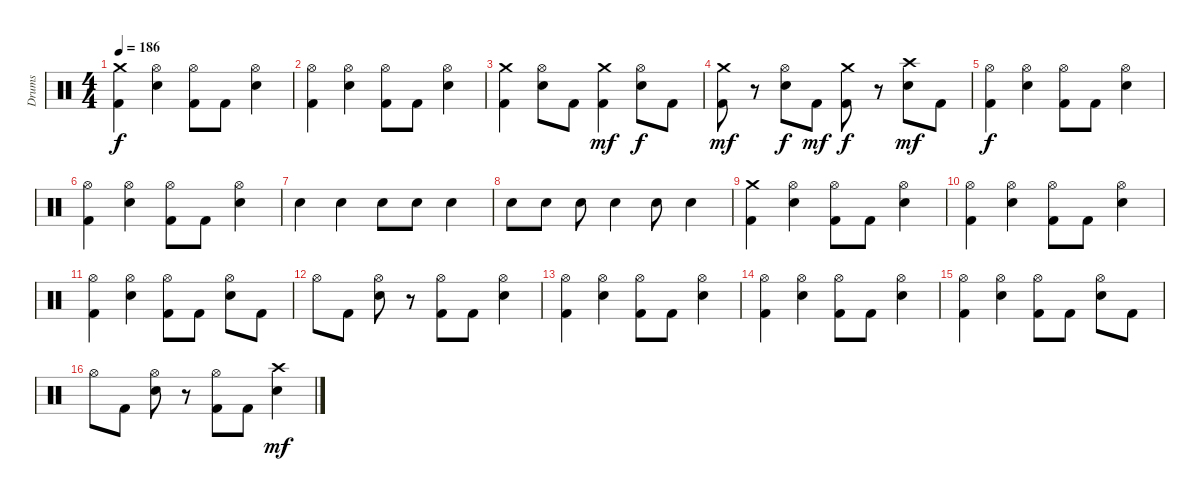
\track ("Drums" "Drums") {instrument percussion}
\staff
\articulation defaults
\ts (4 4)
\tempo 186
\clef neutral
\ks c
("Crash medium (hit)" "Kick (hit) 2").4{dy f} ("Hi-Hat (open)" "Electric Snare (hit)").4 ("Hi-Hat (open)" "Kick (hit) 2").8 "Kick (hit) 2".8 ("Hi-Hat (open)" "Electric Snare (hit)").4 |
("Hi-Hat (open)" "Kick (hit) 2").4 ("Hi-Hat (open)" "Electric Snare (hit)").4 ("Hi-Hat (open)" "Kick (hit) 2").8 "Kick (hit) 2".8 ("Hi-Hat (open)" "Electric Snare (hit)").4 |
("Crash medium (hit)" "Kick (hit) 2").4 ("Hi-Hat (open)" "Electric Snare (hit)").8 "Kick (hit) 2".8 ("Crash medium (hit)" "Kick (hit) 2").4{dy mf} ("Hi-Hat (open)" "Electric Snare (hit)").8{dy f} "Kick (hit) 2".8 |
("Crash medium (hit)" "Kick (hit) 2").8{dy mf} r.8 ("Hi-Hat (open)" "Electric Snare (hit)").8{dy f} "Kick (hit) 2".8{dy mf} ("Crash medium (hit)" "Kick (hit) 2").8{dy f} r.8 ("Crash high (hit)" "Electric Snare (hit)").8{dy mf} "Kick (hit) 2".8 |
("Hi-Hat (open)" "Kick (hit) 2").4{dy f} ("Hi-Hat (open)" "Electric Snare (hit)").4 ("Hi-Hat (open)" "Kick (hit) 2").8 "Kick (hit) 2".8 ("Hi-Hat (open)" "Electric Snare (hit)").4 |
("Hi-Hat (open)" "Kick (hit) 2").4 ("Hi-Hat (open)" "Electric Snare (hit)").4 ("Hi-Hat (open)" "Kick (hit) 2").8 "Kick (hit) 2".8 ("Hi-Hat (open)" "Electric Snare (hit)").4 |
"Electric Snare (hit)".4 "Electric Snare (hit)".4 "Electric Snare (hit)".8 "Electric Snare (hit)".8 "Electric Snare (hit)".4 |
"Electric Snare (hit)".8 "Electric Snare (hit)".8 "Electric Snare (hit)".8 "Electric Snare (hit)".4 "Electric Snare (hit)".8 "Electric Snare (hit)".4 |
("Crash medium (hit)" "Kick (hit) 2").4 ("Hi-Hat (open)" "Electric Snare (hit)").4 ("Hi-Hat (open)" "Kick (hit) 2").8 "Kick (hit) 2".8 ("Hi-Hat (open)" "Electric Snare (hit)").4 |
("Hi-Hat (open)" "Kick (hit) 2").4 ("Hi-Hat (open)" "Electric Snare (hit)").4 ("Hi-Hat (open)" "Kick (hit) 2").8 "Kick (hit) 2".8 ("Hi-Hat (open)" "Electric Snare (hit)").4 |
("Hi-Hat (open)" "Kick (hit) 2").4 ("Hi-Hat (open)" "Electric Snare (hit)").4 ("Hi-Hat (open)" "Kick (hit) 2").8 "Kick (hit) 2".8 ("Hi-Hat (open)" "Electric Snare (hit)").8 "Kick (hit) 2".8 |
"Hi-Hat (open)".8 "Kick (hit) 2".8 ("Hi-Hat (open)" "Electric Snare (hit)").8 r.8 ("Hi-Hat (open)" "Kick (hit) 2").8 "Kick (hit) 2".8 ("Hi-Hat (open)" "Electric Snare (hit)").4 |
("Hi-Hat (open)" "Kick (hit) 2").4 ("Hi-Hat (open)" "Electric Snare (hit)").4 ("Hi-Hat (open)" "Kick (hit) 2").8 "Kick (hit) 2".8 ("Hi-Hat (open)" "Electric Snare (hit)").4 |
("Hi-Hat (open)" "Kick (hit) 2").4 ("Hi-Hat (open)" "Electric Snare (hit)").4 ("Hi-Hat (open)" "Kick (hit) 2").8 "Kick (hit) 2".8 ("Hi-Hat (open)" "Electric Snare (hit)").4 |
("Hi-Hat (open)" "Kick (hit) 2").4 ("Hi-Hat (open)" "Electric Snare (hit)").4 ("Hi-Hat (open)" "Kick (hit) 2").8 "Kick (hit) 2".8 ("Hi-Hat (open)" "Electric Snare (hit)").8 "Kick (hit) 2".8 |
"Hi-Hat (open)".8 "Kick (hit) 2".8 ("Hi-Hat (open)" "Electric Snare (hit)").8 r.8 ("Hi-Hat (open)" "Kick (hit) 2").8 "Kick (hit) 2".8 ("Crash high (hit)" "Electric Snare (hit)").4{dy mf}
